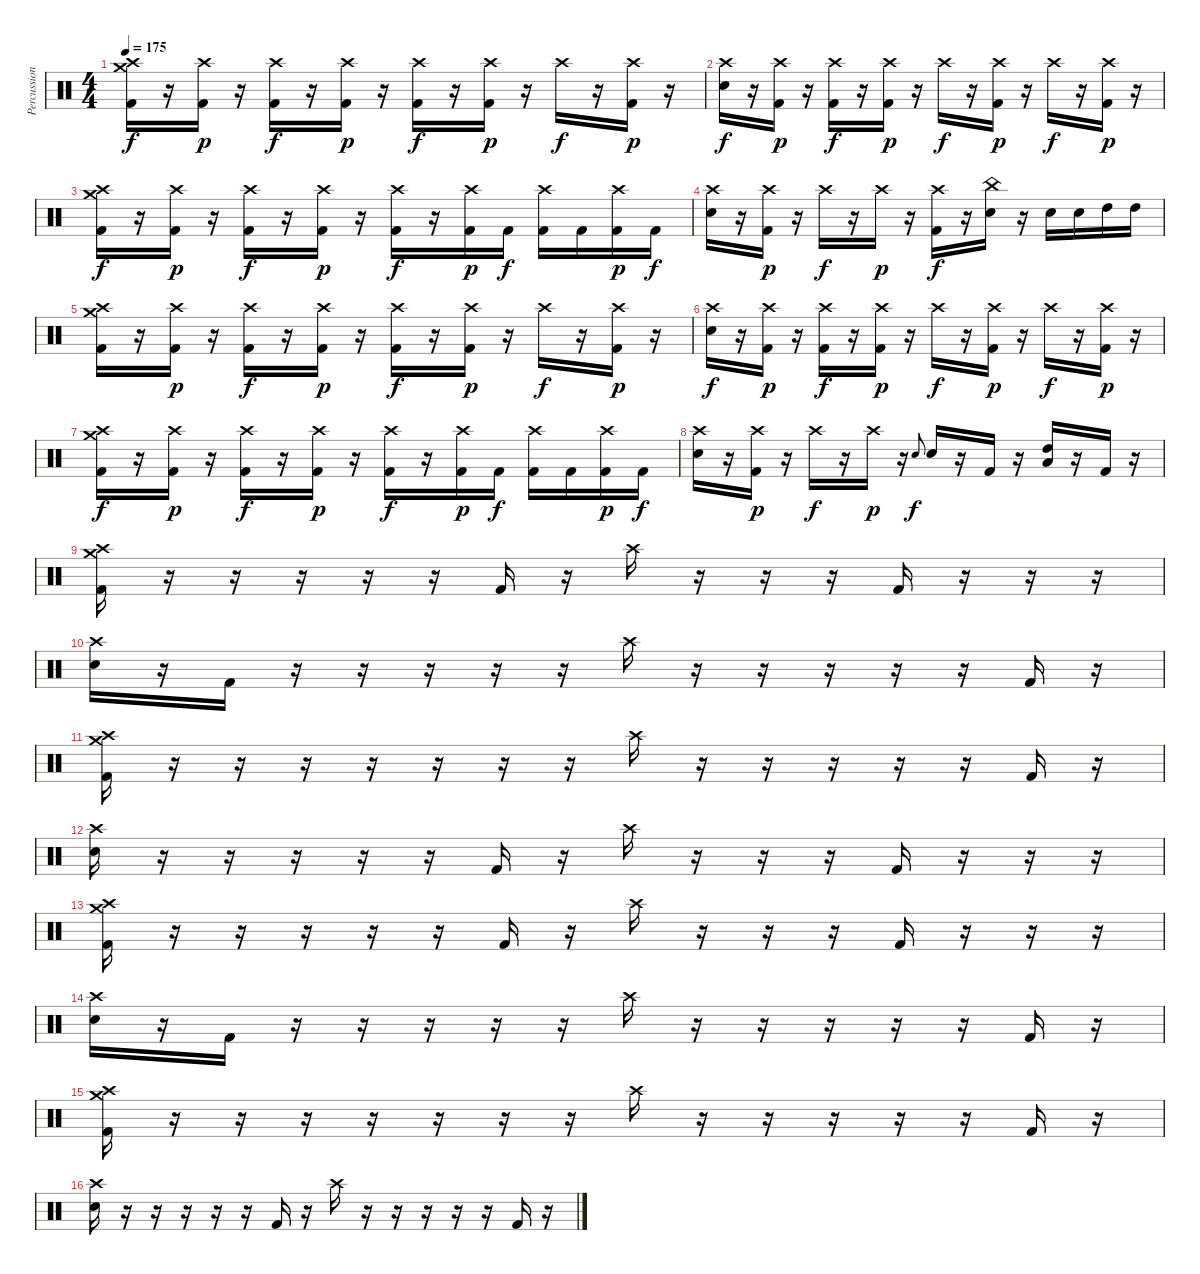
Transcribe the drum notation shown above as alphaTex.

\track ("Percussion" "Percussion") {instrument percussion}
\staff {score}
\articulation defaults
\ts (4 4)
\tempo 175
\clef neutral
\ks c
("Crash medium (hit)" "Crash high (hit)" "Kick (hit) 2").16{dy f} r.16 ("Crash high (hit)" "Kick (hit) 2").16{dy p} r.16 ("Crash high (hit)" "Kick (hit) 2").16{dy f} r.16 ("Crash high (hit)" "Kick (hit) 2").16{dy p} r.16 ("Crash high (hit)" "Kick (hit) 2").16{dy f} r.16 ("Crash high (hit)" "Kick (hit) 2").16{dy p} r.16 "Crash high (hit)".16{dy f} r.16 ("Crash high (hit)" "Kick (hit) 2").16{dy p} r.16 |
("Crash high (hit)" "Electric Snare (hit)").16{dy f} r.16 ("Crash high (hit)" "Kick (hit) 2").16{dy p} r.16 ("Crash high (hit)" "Kick (hit) 2").16{dy f} r.16 ("Crash high (hit)" "Kick (hit) 2").16{dy p} r.16 "Crash high (hit)".16{dy f} r.16 ("Crash high (hit)" "Kick (hit) 2").16{dy p} r.16 "Crash high (hit)".16{dy f} r.16 ("Crash high (hit)" "Kick (hit) 2").16{dy p} r.16 |
("Crash medium (hit)" "Crash high (hit)" "Kick (hit) 2").16{dy f} r.16 ("Crash high (hit)" "Kick (hit) 2").16{dy p} r.16 ("Crash high (hit)" "Kick (hit) 2").16{dy f} r.16 ("Crash high (hit)" "Kick (hit) 2").16{dy p} r.16 ("Crash high (hit)" "Kick (hit) 2").16{dy f} r.16 ("Crash high (hit)" "Kick (hit) 2").16{dy p} "Kick (hit) 2".16{dy f} ("Crash high (hit)" "Kick (hit) 2").16 "Kick (hit) 2".16 ("Crash high (hit)" "Kick (hit) 2").16{dy p} "Kick (hit) 2".16{dy f} |
("Crash high (hit)" "Electric Snare (hit)").16 r.16 ("Crash high (hit)" "Kick (hit) 2").16{dy p} r.16 "Crash high (hit)".16{dy f} r.16 "Crash high (hit)".16{dy p} r.16 ("Crash high (hit)" "Kick (hit) 2").16{dy f} r.16 ("China (hit)" "Electric Snare (hit)").16 r.16 "Electric Snare (hit)".16 "Electric Snare (hit)".16 "High Tom (hit)".16 "High Tom (hit)".16 |
("Crash medium (hit)" "Crash high (hit)" "Kick (hit) 2").16 r.16 ("Crash high (hit)" "Kick (hit) 2").16{dy p} r.16 ("Crash high (hit)" "Kick (hit) 2").16{dy f} r.16 ("Crash high (hit)" "Kick (hit) 2").16{dy p} r.16 ("Crash high (hit)" "Kick (hit) 2").16{dy f} r.16 ("Crash high (hit)" "Kick (hit) 2").16{dy p} r.16 "Crash high (hit)".16{dy f} r.16 ("Crash high (hit)" "Kick (hit) 2").16{dy p} r.16 |
("Crash high (hit)" "Electric Snare (hit)").16{dy f} r.16 ("Crash high (hit)" "Kick (hit) 2").16{dy p} r.16 ("Crash high (hit)" "Kick (hit) 2").16{dy f} r.16 ("Crash high (hit)" "Kick (hit) 2").16{dy p} r.16 "Crash high (hit)".16{dy f} r.16 ("Crash high (hit)" "Kick (hit) 2").16{dy p} r.16 "Crash high (hit)".16{dy f} r.16 ("Crash high (hit)" "Kick (hit) 2").16{dy p} r.16 |
("Crash medium (hit)" "Crash high (hit)" "Kick (hit) 2").16{dy f} r.16 ("Crash high (hit)" "Kick (hit) 2").16{dy p} r.16 ("Crash high (hit)" "Kick (hit) 2").16{dy f} r.16 ("Crash high (hit)" "Kick (hit) 2").16{dy p} r.16 ("Crash high (hit)" "Kick (hit) 2").16{dy f} r.16 ("Crash high (hit)" "Kick (hit) 2").16{dy p} "Kick (hit) 2".16{dy f} ("Crash high (hit)" "Kick (hit) 2").16 "Kick (hit) 2".16 ("Crash high (hit)" "Kick (hit) 2").16{dy p} "Kick (hit) 2".16{dy f} |
("Crash high (hit)" "Electric Snare (hit)").16 r.16 ("Crash high (hit)" "Kick (hit) 2").16{dy p} r.16 "Crash high (hit)".16{dy f} r.16 "Crash high (hit)".16{dy p} r.16 "Electric Snare (hit)".8{gr onbeat dy f} "Electric Snare (hit)".16 r.16 "Kick (hit) 2".16 r.16 ("Low Floor Tom (hit)" "High Tom (hit)").16 r.16 "Kick (hit) 2".16 r.16 |
("Crash medium (hit)" "Crash high (hit)" "Kick (hit) 2").16 r.16 r.16 r.16 r.16 r.16 "Kick (hit) 2".16 r.16 "Crash high (hit)".16 r.16 r.16 r.16 "Kick (hit) 2".16 r.16 r.16 r.16 |
("Crash high (hit)" "Electric Snare (hit)").16 r.16 "Kick (hit) 2".16 r.16 r.16 r.16 r.16 r.16 "Crash high (hit)".16 r.16 r.16 r.16 r.16 r.16 "Kick (hit) 2".16 r.16 |
("Crash medium (hit)" "Crash high (hit)" "Kick (hit) 2").16 r.16 r.16 r.16 r.16 r.16 r.16 r.16 "Crash high (hit)".16 r.16 r.16 r.16 r.16 r.16 "Kick (hit) 2".16 r.16 |
("Crash high (hit)" "Electric Snare (hit)").16 r.16 r.16 r.16 r.16 r.16 "Kick (hit) 2".16 r.16 "Crash high (hit)".16 r.16 r.16 r.16 "Kick (hit) 2".16 r.16 r.16 r.16 |
("Crash medium (hit)" "Crash high (hit)" "Kick (hit) 2").16 r.16 r.16 r.16 r.16 r.16 "Kick (hit) 2".16 r.16 "Crash high (hit)".16 r.16 r.16 r.16 "Kick (hit) 2".16 r.16 r.16 r.16 |
("Crash high (hit)" "Electric Snare (hit)").16 r.16 "Kick (hit) 2".16 r.16 r.16 r.16 r.16 r.16 "Crash high (hit)".16 r.16 r.16 r.16 r.16 r.16 "Kick (hit) 2".16 r.16 |
("Crash medium (hit)" "Crash high (hit)" "Kick (hit) 2").16 r.16 r.16 r.16 r.16 r.16 r.16 r.16 "Crash high (hit)".16 r.16 r.16 r.16 r.16 r.16 "Kick (hit) 2".16 r.16 |
("Crash high (hit)" "Electric Snare (hit)").16 r.16 r.16 r.16 r.16 r.16 "Kick (hit) 2".16 r.16 "Crash high (hit)".16 r.16 r.16 r.16 r.16 r.16 "Kick (hit) 2".16 r.16
